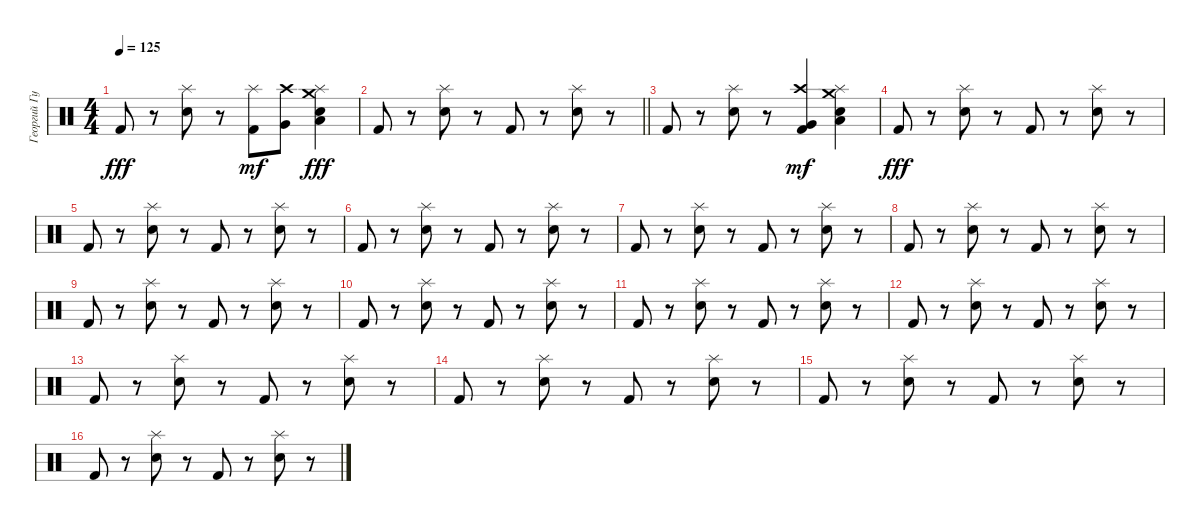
\track ("Георгий Гурьянов" "Георгий Гу") {instrument percussion}
\staff {score}
\articulation defaults
\ts (4 4)
\tempo 125
\clef neutral
\ks c "Kick (hit) 2".8{dy fff}
r.8 ("Snare (hit) 2" "Splash (hit)").8 r.8 ("Kick (hit) 2" "Splash (hit)").8{dy mf} ("Crash high (hit)" "Very Low Tom (hit)").8 ("Snare (hit) 2" "Splash (hit)" "Crash medium (hit)" "Low Tom (hit)").4{dy fff} |
\barLineRight lightlight "Kick (hit) 2".8
r.8 ("Snare (hit) 2" "Splash (hit)").8 r.8 "Kick (hit) 2".8 r.8 ("Snare (hit) 2" "Splash (hit)").8 r.8 |
"Kick (hit) 2".8 r.8 ("Snare (hit) 2" "Splash (hit)").8 r.8 ("Kick (hit) 2" "Crash high (hit)" "Very Low Tom (hit)").4{dy mf} ("Snare (hit) 2" "Splash (hit)" "Crash medium (hit)" "Low Tom (hit)").4 |
"Kick (hit) 2".8{dy fff} r.8 ("Snare (hit) 2" "Splash (hit)").8 r.8 "Kick (hit) 2".8 r.8 ("Snare (hit) 2" "Splash (hit)").8 r.8 |
"Kick (hit) 2".8 r.8 ("Snare (hit) 2" "Splash (hit)").8 r.8 "Kick (hit) 2".8 r.8 ("Snare (hit) 2" "Splash (hit)").8 r.8 |
"Kick (hit) 2".8 r.8 ("Snare (hit) 2" "Splash (hit)").8 r.8 "Kick (hit) 2".8 r.8 ("Snare (hit) 2" "Splash (hit)").8 r.8 |
"Kick (hit) 2".8 r.8 ("Snare (hit) 2" "Splash (hit)").8 r.8 "Kick (hit) 2".8 r.8 ("Snare (hit) 2" "Splash (hit)").8 r.8 |
"Kick (hit) 2".8 r.8 ("Snare (hit) 2" "Splash (hit)").8 r.8 "Kick (hit) 2".8 r.8 ("Snare (hit) 2" "Splash (hit)").8 r.8 |
"Kick (hit) 2".8 r.8 ("Snare (hit) 2" "Splash (hit)").8 r.8 "Kick (hit) 2".8 r.8 ("Snare (hit) 2" "Splash (hit)").8 r.8 |
"Kick (hit) 2".8 r.8 ("Snare (hit) 2" "Splash (hit)").8 r.8 "Kick (hit) 2".8 r.8 ("Snare (hit) 2" "Splash (hit)").8 r.8 |
"Kick (hit) 2".8 r.8 ("Snare (hit) 2" "Splash (hit)").8 r.8 "Kick (hit) 2".8 r.8 ("Snare (hit) 2" "Splash (hit)").8 r.8 |
"Kick (hit) 2".8 r.8 ("Snare (hit) 2" "Splash (hit)").8 r.8 "Kick (hit) 2".8 r.8 ("Snare (hit) 2" "Splash (hit)").8 r.8 |
"Kick (hit) 2".8 r.8 ("Snare (hit) 2" "Splash (hit)").8 r.8 "Kick (hit) 2".8 r.8 ("Snare (hit) 2" "Splash (hit)").8 r.8 |
"Kick (hit) 2".8 r.8 ("Snare (hit) 2" "Splash (hit)").8 r.8 "Kick (hit) 2".8 r.8 ("Snare (hit) 2" "Splash (hit)").8 r.8 |
"Kick (hit) 2".8 r.8 ("Snare (hit) 2" "Splash (hit)").8 r.8 "Kick (hit) 2".8 r.8 ("Snare (hit) 2" "Splash (hit)").8 r.8 |
"Kick (hit) 2".8 r.8 ("Snare (hit) 2" "Splash (hit)").8 r.8 "Kick (hit) 2".8 r.8 ("Snare (hit) 2" "Splash (hit)").8 r.8
